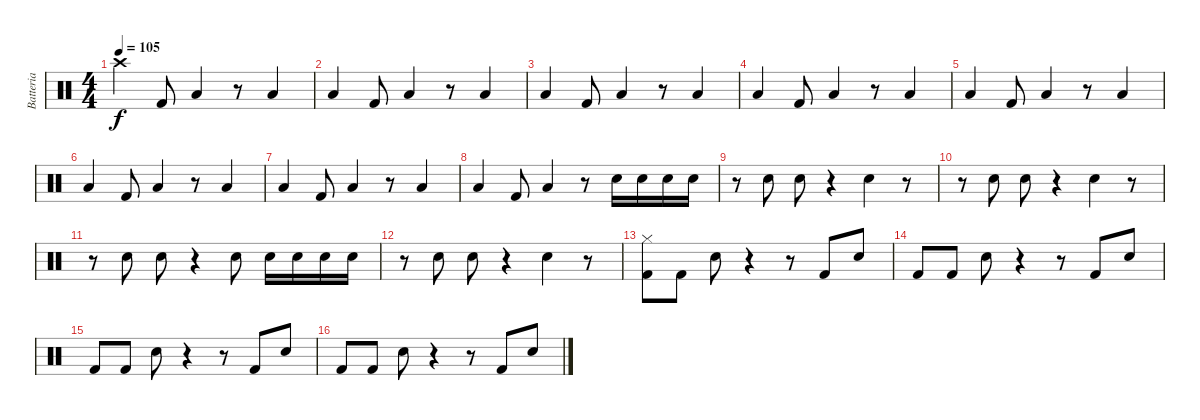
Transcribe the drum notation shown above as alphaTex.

\track ("Batteria" "Batteria") {instrument percussion}
\staff {score}
\articulation defaults
\ts (4 4)
\tempo 105
\clef neutral
\ks c "Crash high (hit)".4{dy f} "Kick (hit) 2".8 "Low Tom (hit)".4
r.8 "Low Tom (hit)".4 |
"Low Tom (hit)".4 "Kick (hit) 2".8 "Low Tom (hit)".4 r.8 "Low Tom (hit)".4 |
"Low Tom (hit)".4 "Kick (hit) 2".8 "Low Tom (hit)".4 r.8 "Low Tom (hit)".4 |
"Low Tom (hit)".4 "Kick (hit) 2".8 "Low Tom (hit)".4 r.8 "Low Tom (hit)".4 |
"Low Tom (hit)".4 "Kick (hit) 2".8 "Low Tom (hit)".4 r.8 "Low Tom (hit)".4 |
"Low Tom (hit)".4 "Kick (hit) 2".8 "Low Tom (hit)".4 r.8 "Low Tom (hit)".4 |
"Low Tom (hit)".4 "Kick (hit) 2".8 "Low Tom (hit)".4 r.8 "Low Tom (hit)".4 |
"Low Tom (hit)".4 "Kick (hit) 2".8 "Low Tom (hit)".4 r.8 "Snare (hit) 2".16 "Snare (hit) 2".16 "Snare (hit) 2".16 "Snare (hit) 2".16 |
r.8 "Hand Clap (hit)".8 "Hand Clap (hit)".8 r.4 "Hand Clap (hit)".4 r.8 |
r.8 "Hand Clap (hit)".8 "Hand Clap (hit)".8 r.4 "Hand Clap (hit)".4 r.8 |
r.8 "Hand Clap (hit)".8 "Hand Clap (hit)".8 r.4 "Hand Clap (hit)".8 "Snare (hit) 2".16 "Snare (hit) 2".16 "Snare (hit) 2".16 "Snare (hit) 2".16 |
r.8 "Hand Clap (hit)".8 "Hand Clap (hit)".8 r.4 "Hand Clap (hit)".4 r.8 |
("Kick (hit) 2" "Hi-Hat (closed)").8 "Kick (hit) 2".8 "Snare (hit) 2".8 r.4 r.8 "Kick (hit) 2".8 "Snare (hit) 2".8 |
"Kick (hit) 2".8 "Kick (hit) 2".8 "Snare (hit) 2".8 r.4 r.8 "Kick (hit) 2".8 "Snare (hit) 2".8 |
"Kick (hit) 2".8 "Kick (hit) 2".8 "Snare (hit) 2".8 r.4 r.8 "Kick (hit) 2".8 "Snare (hit) 2".8 |
"Kick (hit) 2".8 "Kick (hit) 2".8 "Snare (hit) 2".8 r.4 r.8 "Kick (hit) 2".8 "Snare (hit) 2".8
